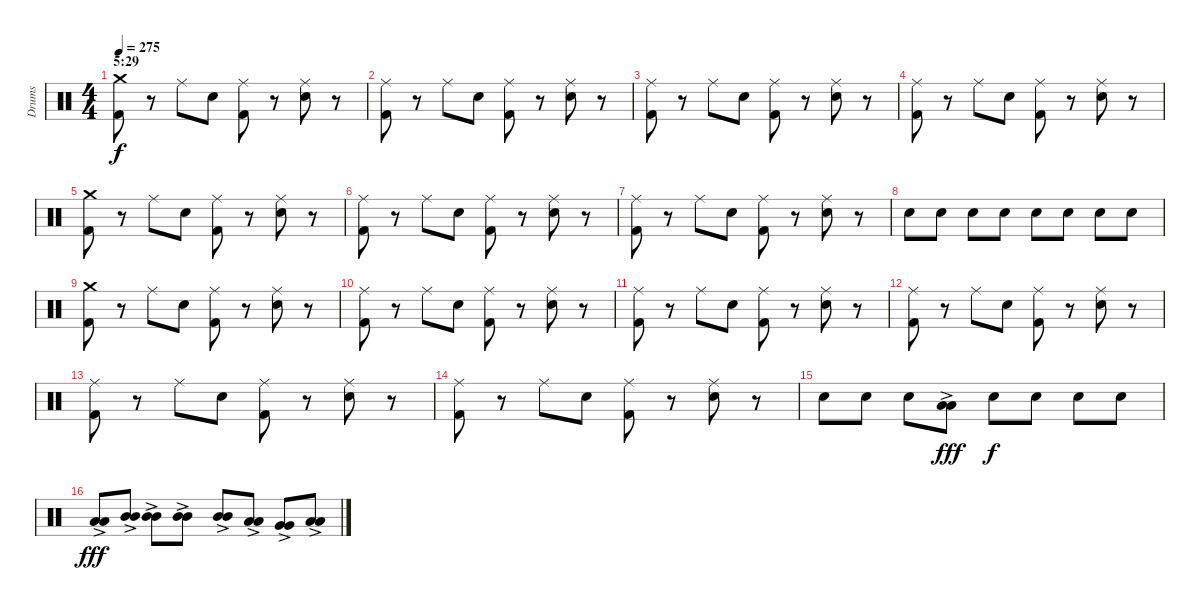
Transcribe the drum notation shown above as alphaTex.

\track ("Drums" "Drums") {instrument percussion}
\staff {score}
\articulation defaults
\ts (4 4)
\section ("" "5:29")
\tempo 275
\clef neutral
\ks c
("Crash medium (hit)" "Kick (hit) 2").8{dy f} r.8 "Ride (middle)".8 "Electric Snare (hit)".8 ("Ride (middle)" "Kick (hit) 2").8 r.8 ("Ride (middle)" "Electric Snare (hit)").8 r.8 |
("Ride (middle)" "Kick (hit) 2").8 r.8 "Ride (middle)".8 "Electric Snare (hit)".8 ("Ride (middle)" "Kick (hit) 2").8 r.8 ("Ride (middle)" "Electric Snare (hit)").8 r.8 |
("Ride (middle)" "Kick (hit) 2").8 r.8 "Ride (middle)".8 "Electric Snare (hit)".8 ("Ride (middle)" "Kick (hit) 2").8 r.8 ("Ride (middle)" "Electric Snare (hit)").8 r.8 |
("Ride (middle)" "Kick (hit) 2").8 r.8 "Ride (middle)".8 "Electric Snare (hit)".8 ("Ride (middle)" "Kick (hit) 2").8 r.8 ("Ride (middle)" "Electric Snare (hit)").8 r.8 |
("Crash medium (hit)" "Kick (hit) 2").8 r.8 "Ride (middle)".8 "Electric Snare (hit)".8 ("Ride (middle)" "Kick (hit) 2").8 r.8 ("Ride (middle)" "Electric Snare (hit)").8 r.8 |
("Ride (middle)" "Kick (hit) 2").8 r.8 "Ride (middle)".8 "Electric Snare (hit)".8 ("Ride (middle)" "Kick (hit) 2").8 r.8 ("Ride (middle)" "Electric Snare (hit)").8 r.8 |
("Ride (middle)" "Kick (hit) 2").8 r.8 "Ride (middle)".8 "Electric Snare (hit)".8 ("Ride (middle)" "Kick (hit) 2").8 r.8 ("Ride (middle)" "Electric Snare (hit)").8 r.8 |
"Electric Snare (hit)".8 "Electric Snare (hit)".8 "Electric Snare (hit)".8 "Electric Snare (hit)".8 "Electric Snare (hit)".8 "Electric Snare (hit)".8 "Electric Snare (hit)".8 "Electric Snare (hit)".8 |
("Crash medium (hit)" "Kick (hit) 2").8 r.8 "Ride (middle)".8 "Electric Snare (hit)".8 ("Ride (middle)" "Kick (hit) 2").8 r.8 ("Ride (middle)" "Electric Snare (hit)").8 r.8 |
("Ride (middle)" "Kick (hit) 2").8 r.8 "Ride (middle)".8 "Electric Snare (hit)".8 ("Ride (middle)" "Kick (hit) 2").8 r.8 ("Ride (middle)" "Electric Snare (hit)").8 r.8 |
("Ride (middle)" "Kick (hit) 2").8 r.8 "Ride (middle)".8 "Electric Snare (hit)".8 ("Ride (middle)" "Kick (hit) 2").8 r.8 ("Ride (middle)" "Electric Snare (hit)").8 r.8 |
("Ride (middle)" "Kick (hit) 2").8 r.8 "Ride (middle)".8 "Electric Snare (hit)".8 ("Ride (middle)" "Kick (hit) 2").8 r.8 ("Ride (middle)" "Electric Snare (hit)").8 r.8 |
("Ride (middle)" "Kick (hit) 2").8 r.8 "Ride (middle)".8 "Electric Snare (hit)".8 ("Ride (middle)" "Kick (hit) 2").8 r.8 ("Ride (middle)" "Electric Snare (hit)").8 r.8 |
("Ride (middle)" "Kick (hit) 2").8 r.8 "Ride (middle)".8 "Electric Snare (hit)".8 ("Ride (middle)" "Kick (hit) 2").8 r.8 ("Ride (middle)" "Electric Snare (hit)").8 r.8 |
"Electric Snare (hit)".8 "Electric Snare (hit)".8 "Electric Snare (hit)".8 ("Low Tom (hit)"{ac} "Low Tom (hit)"{ac}).8{dy fff} "Electric Snare (hit)".8{dy f} "Electric Snare (hit)".8 "Electric Snare (hit)".8 "Electric Snare (hit)".8 |
("Low Tom (hit)"{ac} "Low Tom (hit)"{ac}).8{dy fff} ("Mid Tom (hit)"{ac} "Mid Tom (hit)"{ac}).8 ("Mid Tom (hit)"{ac} "Mid Tom (hit)"{ac}).8 ("Mid Tom (hit)"{ac} "Mid Tom (hit)"{ac}).8 ("Mid Tom (hit)"{ac} "Mid Tom (hit)"{ac}).8 ("Low Tom (hit)"{ac} "Low Tom (hit)"{ac}).8 ("Very Low Tom (hit)"{ac} "Very Low Tom (hit)"{ac}).8 ("Low Floor Tom (hit)"{ac} "Low Floor Tom (hit)"{ac}).8
